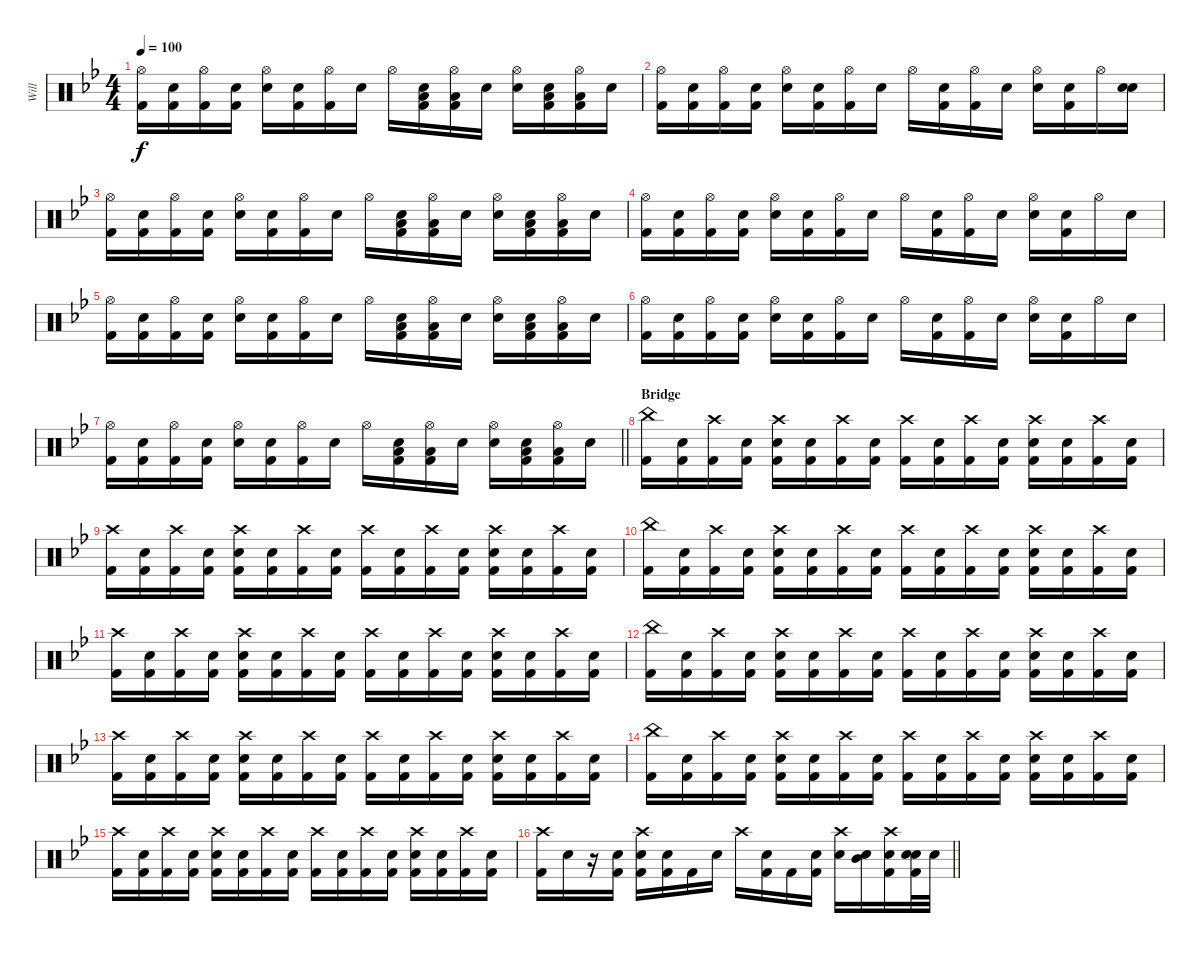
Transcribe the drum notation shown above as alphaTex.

\track ("Will" "Will") {instrument percussion}
\staff {score}
\articulation defaults
\ts (4 4)
\tempo 100
\clef neutral
\ks bb
("Hi-Hat (open)" "Kick (hit) 2").16{dy f} ("Snare (hit)" "Kick (hit) 2").16 ("Hi-Hat (open)" "Kick (hit) 2").16 ("Snare (hit)" "Kick (hit) 2").16 ("Hi-Hat (open)" "Electric Snare (hit)").16 ("Snare (hit)" "Kick (hit) 2").16 ("Hi-Hat (open)" "Kick (hit) 2").16 "Snare (hit)".16 "Hi-Hat (open)".16 ("Snare (hit)" "Low Tom (hit)" "Kick (hit) 2").16 ("Hi-Hat (open)" "Low Tom (hit)" "Kick (hit) 2").16 "Snare (hit)".16 ("Hi-Hat (open)" "Electric Snare (hit)").16 ("Snare (hit)" "Low Tom (hit)" "Kick (hit) 2").16 ("Hi-Hat (open)" "Low Tom (hit)" "Kick (hit) 2").16 "Snare (hit)".16 |
("Hi-Hat (open)" "Kick (hit) 2").16 ("Snare (hit)" "Kick (hit) 2").16 ("Hi-Hat (open)" "Kick (hit) 2").16 ("Snare (hit)" "Kick (hit) 2").16 ("Hi-Hat (open)" "Electric Snare (hit)").16 ("Snare (hit)" "Kick (hit) 2").16 ("Hi-Hat (open)" "Kick (hit) 2").16 "Snare (hit)".16 "Hi-Hat (open)".16 ("Snare (hit)" "Kick (hit) 2").16 ("Hi-Hat (open)" "Kick (hit) 2").16 "Snare (hit)".16 ("Hi-Hat (open)" "Electric Snare (hit)").16 ("Snare (hit)" "Kick (hit) 2").16 "Hi-Hat (open)".16 ("Snare (hit)" "Electric Snare (hit)").16 |
("Hi-Hat (open)" "Kick (hit) 2").16 ("Snare (hit)" "Kick (hit) 2").16 ("Hi-Hat (open)" "Kick (hit) 2").16 ("Snare (hit)" "Kick (hit) 2").16 ("Hi-Hat (open)" "Electric Snare (hit)").16 ("Snare (hit)" "Kick (hit) 2").16 ("Hi-Hat (open)" "Kick (hit) 2").16 "Snare (hit)".16 "Hi-Hat (open)".16 ("Snare (hit)" "Low Tom (hit)" "Kick (hit) 2").16 ("Hi-Hat (open)" "Low Tom (hit)" "Kick (hit) 2").16 "Snare (hit)".16 ("Hi-Hat (open)" "Electric Snare (hit)").16 ("Snare (hit)" "Low Tom (hit)" "Kick (hit) 2").16 ("Hi-Hat (open)" "Low Tom (hit)" "Kick (hit) 2").16 "Snare (hit)".16 |
("Hi-Hat (open)" "Kick (hit) 2").16 ("Snare (hit)" "Kick (hit) 2").16 ("Hi-Hat (open)" "Kick (hit) 2").16 ("Snare (hit)" "Kick (hit) 2").16 ("Hi-Hat (open)" "Electric Snare (hit)").16 ("Snare (hit)" "Kick (hit) 2").16 ("Hi-Hat (open)" "Kick (hit) 2").16 "Snare (hit)".16 "Hi-Hat (open)".16 ("Snare (hit)" "Kick (hit) 2").16 ("Hi-Hat (open)" "Kick (hit) 2").16 "Snare (hit)".16 ("Hi-Hat (open)" "Electric Snare (hit)").16 ("Snare (hit)" "Kick (hit) 2").16 "Hi-Hat (open)".16 "Snare (hit)".16 |
("Hi-Hat (open)" "Kick (hit) 2").16 ("Snare (hit)" "Kick (hit) 2").16 ("Hi-Hat (open)" "Kick (hit) 2").16 ("Snare (hit)" "Kick (hit) 2").16 ("Hi-Hat (open)" "Electric Snare (hit)").16 ("Snare (hit)" "Kick (hit) 2").16 ("Hi-Hat (open)" "Kick (hit) 2").16 "Snare (hit)".16 "Hi-Hat (open)".16 ("Snare (hit)" "Low Tom (hit)" "Kick (hit) 2").16 ("Hi-Hat (open)" "Low Tom (hit)" "Kick (hit) 2").16 "Snare (hit)".16 ("Hi-Hat (open)" "Electric Snare (hit)").16 ("Snare (hit)" "Low Tom (hit)" "Kick (hit) 2").16 ("Hi-Hat (open)" "Low Tom (hit)" "Kick (hit) 2").16 "Snare (hit)".16 |
("Hi-Hat (open)" "Kick (hit) 2").16 ("Snare (hit)" "Kick (hit) 2").16 ("Hi-Hat (open)" "Kick (hit) 2").16 ("Snare (hit)" "Kick (hit) 2").16 ("Hi-Hat (open)" "Electric Snare (hit)").16 ("Snare (hit)" "Kick (hit) 2").16 ("Hi-Hat (open)" "Kick (hit) 2").16 "Snare (hit)".16 "Hi-Hat (open)".16 ("Snare (hit)" "Kick (hit) 2").16 ("Hi-Hat (open)" "Kick (hit) 2").16 "Snare (hit)".16 ("Hi-Hat (open)" "Electric Snare (hit)").16 ("Snare (hit)" "Kick (hit) 2").16 "Hi-Hat (open)".16 "Snare (hit)".16 |
\barLineRight lightlight
("Hi-Hat (open)" "Kick (hit) 2").16 ("Snare (hit)" "Kick (hit) 2").16 ("Hi-Hat (open)" "Kick (hit) 2").16 ("Snare (hit)" "Kick (hit) 2").16 ("Hi-Hat (open)" "Electric Snare (hit)").16 ("Snare (hit)" "Kick (hit) 2").16 ("Hi-Hat (open)" "Kick (hit) 2").16 "Snare (hit)".16 "Hi-Hat (open)".16 ("Snare (hit)" "Low Tom (hit)" "Kick (hit) 2").16 ("Hi-Hat (open)" "Low Tom (hit)" "Kick (hit) 2").16 "Snare (hit)".16 ("Hi-Hat (open)" "Electric Snare (hit)").16 ("Snare (hit)" "Low Tom (hit)" "Kick (hit) 2").16 ("Hi-Hat (open)" "Low Tom (hit)" "Kick (hit) 2").16 "Snare (hit)".16 |
\section ("" "Bridge")
("China (hit)" "Kick (hit) 2").16 ("Snare (hit)" "Kick (hit) 2").16 ("Crash high (hit)" "Kick (hit) 2").16 ("Snare (hit)" "Kick (hit) 2").16 ("Crash high (hit)" "Electric Snare (hit)" "Kick (hit) 2").16 ("Snare (hit)" "Kick (hit) 2").16 ("Crash high (hit)" "Kick (hit) 2").16 ("Snare (hit)" "Kick (hit) 2").16 ("Crash high (hit)" "Kick (hit) 2").16 ("Snare (hit)" "Kick (hit) 2").16 ("Crash high (hit)" "Kick (hit) 2").16 ("Snare (hit)" "Kick (hit) 2").16 ("Crash high (hit)" "Electric Snare (hit)" "Kick (hit) 2").16 ("Snare (hit)" "Kick (hit) 2").16 ("Crash high (hit)" "Kick (hit) 2").16 ("Snare (hit)" "Kick (hit) 2").16 |
("Crash high (hit)" "Kick (hit) 2").16 ("Snare (hit)" "Kick (hit) 2").16 ("Crash high (hit)" "Kick (hit) 2").16 ("Snare (hit)" "Kick (hit) 2").16 ("Crash high (hit)" "Electric Snare (hit)" "Kick (hit) 2").16 ("Snare (hit)" "Kick (hit) 2").16 ("Crash high (hit)" "Kick (hit) 2").16 ("Snare (hit)" "Kick (hit) 2").16 ("Crash high (hit)" "Kick (hit) 2").16 ("Snare (hit)" "Kick (hit) 2").16 ("Crash high (hit)" "Kick (hit) 2").16 ("Snare (hit)" "Kick (hit) 2").16 ("Crash high (hit)" "Electric Snare (hit)" "Kick (hit) 2").16 ("Snare (hit)" "Kick (hit) 2").16 ("Crash high (hit)" "Kick (hit) 2").16 ("Snare (hit)" "Kick (hit) 2").16 |
("China (hit)" "Kick (hit) 2").16 ("Snare (hit)" "Kick (hit) 2").16 ("Crash high (hit)" "Kick (hit) 2").16 ("Snare (hit)" "Kick (hit) 2").16 ("Crash high (hit)" "Electric Snare (hit)" "Kick (hit) 2").16 ("Snare (hit)" "Kick (hit) 2").16 ("Crash high (hit)" "Kick (hit) 2").16 ("Snare (hit)" "Kick (hit) 2").16 ("Crash high (hit)" "Kick (hit) 2").16 ("Snare (hit)" "Kick (hit) 2").16 ("Crash high (hit)" "Kick (hit) 2").16 ("Snare (hit)" "Kick (hit) 2").16 ("Crash high (hit)" "Electric Snare (hit)" "Kick (hit) 2").16 ("Snare (hit)" "Kick (hit) 2").16 ("Crash high (hit)" "Kick (hit) 2").16 ("Snare (hit)" "Kick (hit) 2").16 |
("Crash high (hit)" "Kick (hit) 2").16 ("Snare (hit)" "Kick (hit) 2").16 ("Crash high (hit)" "Kick (hit) 2").16 ("Snare (hit)" "Kick (hit) 2").16 ("Crash high (hit)" "Electric Snare (hit)" "Kick (hit) 2").16 ("Snare (hit)" "Kick (hit) 2").16 ("Crash high (hit)" "Kick (hit) 2").16 ("Snare (hit)" "Kick (hit) 2").16 ("Crash high (hit)" "Kick (hit) 2").16 ("Snare (hit)" "Kick (hit) 2").16 ("Crash high (hit)" "Kick (hit) 2").16 ("Snare (hit)" "Kick (hit) 2").16 ("Crash high (hit)" "Electric Snare (hit)" "Kick (hit) 2").16 ("Snare (hit)" "Kick (hit) 2").16 ("Crash high (hit)" "Kick (hit) 2").16 ("Snare (hit)" "Kick (hit) 2").16 |
("China (hit)" "Kick (hit) 2").16 ("Snare (hit)" "Kick (hit) 2").16 ("Crash high (hit)" "Kick (hit) 2").16 ("Snare (hit)" "Kick (hit) 2").16 ("Crash high (hit)" "Electric Snare (hit)" "Kick (hit) 2").16 ("Snare (hit)" "Kick (hit) 2").16 ("Crash high (hit)" "Kick (hit) 2").16 ("Snare (hit)" "Kick (hit) 2").16 ("Crash high (hit)" "Kick (hit) 2").16 ("Snare (hit)" "Kick (hit) 2").16 ("Crash high (hit)" "Kick (hit) 2").16 ("Snare (hit)" "Kick (hit) 2").16 ("Crash high (hit)" "Electric Snare (hit)" "Kick (hit) 2").16 ("Snare (hit)" "Kick (hit) 2").16 ("Crash high (hit)" "Kick (hit) 2").16 ("Snare (hit)" "Kick (hit) 2").16 |
("Crash high (hit)" "Kick (hit) 2").16 ("Snare (hit)" "Kick (hit) 2").16 ("Crash high (hit)" "Kick (hit) 2").16 ("Snare (hit)" "Kick (hit) 2").16 ("Crash high (hit)" "Electric Snare (hit)" "Kick (hit) 2").16 ("Snare (hit)" "Kick (hit) 2").16 ("Crash high (hit)" "Kick (hit) 2").16 ("Snare (hit)" "Kick (hit) 2").16 ("Crash high (hit)" "Kick (hit) 2").16 ("Snare (hit)" "Kick (hit) 2").16 ("Crash high (hit)" "Kick (hit) 2").16 ("Snare (hit)" "Kick (hit) 2").16 ("Crash high (hit)" "Electric Snare (hit)" "Kick (hit) 2").16 ("Snare (hit)" "Kick (hit) 2").16 ("Crash high (hit)" "Kick (hit) 2").16 ("Snare (hit)" "Kick (hit) 2").16 |
("China (hit)" "Kick (hit) 2").16 ("Snare (hit)" "Kick (hit) 2").16 ("Crash high (hit)" "Kick (hit) 2").16 ("Snare (hit)" "Kick (hit) 2").16 ("Crash high (hit)" "Electric Snare (hit)" "Kick (hit) 2").16 ("Snare (hit)" "Kick (hit) 2").16 ("Crash high (hit)" "Kick (hit) 2").16 ("Snare (hit)" "Kick (hit) 2").16 ("Crash high (hit)" "Kick (hit) 2").16 ("Snare (hit)" "Kick (hit) 2").16 ("Crash high (hit)" "Kick (hit) 2").16 ("Snare (hit)" "Kick (hit) 2").16 ("Crash high (hit)" "Electric Snare (hit)" "Kick (hit) 2").16 ("Snare (hit)" "Kick (hit) 2").16 ("Crash high (hit)" "Kick (hit) 2").16 ("Snare (hit)" "Kick (hit) 2").16 |
("Crash high (hit)" "Kick (hit) 2").16 ("Snare (hit)" "Kick (hit) 2").16 ("Crash high (hit)" "Kick (hit) 2").16 ("Snare (hit)" "Kick (hit) 2").16 ("Crash high (hit)" "Electric Snare (hit)" "Kick (hit) 2").16 ("Snare (hit)" "Kick (hit) 2").16 ("Crash high (hit)" "Kick (hit) 2").16 ("Snare (hit)" "Kick (hit) 2").16 ("Crash high (hit)" "Kick (hit) 2").16 ("Snare (hit)" "Kick (hit) 2").16 ("Crash high (hit)" "Kick (hit) 2").16 ("Snare (hit)" "Kick (hit) 2").16 ("Crash high (hit)" "Electric Snare (hit)" "Kick (hit) 2").16 ("Snare (hit)" "Kick (hit) 2").16 ("Crash high (hit)" "Kick (hit) 2").16 ("Snare (hit)" "Kick (hit) 2").16 |
\barLineRight lightlight
("Crash high (hit)" "Kick (hit) 2").16 "Snare (hit)".16 r.16 ("Snare (hit)" "Kick (hit) 2").16 ("Crash high (hit)" "Electric Snare (hit)" "Kick (hit) 2").16 ("Snare (hit)" "Kick (hit) 2").16 "Kick (hit) 2".16 "Snare (hit)".16 "Crash high (hit)".16 ("Snare (hit)" "Kick (hit) 2").16 "Kick (hit) 2".16 ("Snare (hit)" "Kick (hit) 2").16 ("Crash high (hit)" "Electric Snare (hit)").16 ("Snare (hit)" "Mid Tom (hit)").16 ("Crash high (hit)" "Electric Snare (hit)" "Kick (hit) 2").16 ("Snare (hit)" "Electric Snare (hit)" "Kick (hit) 2").32 "Electric Snare (hit)".32
